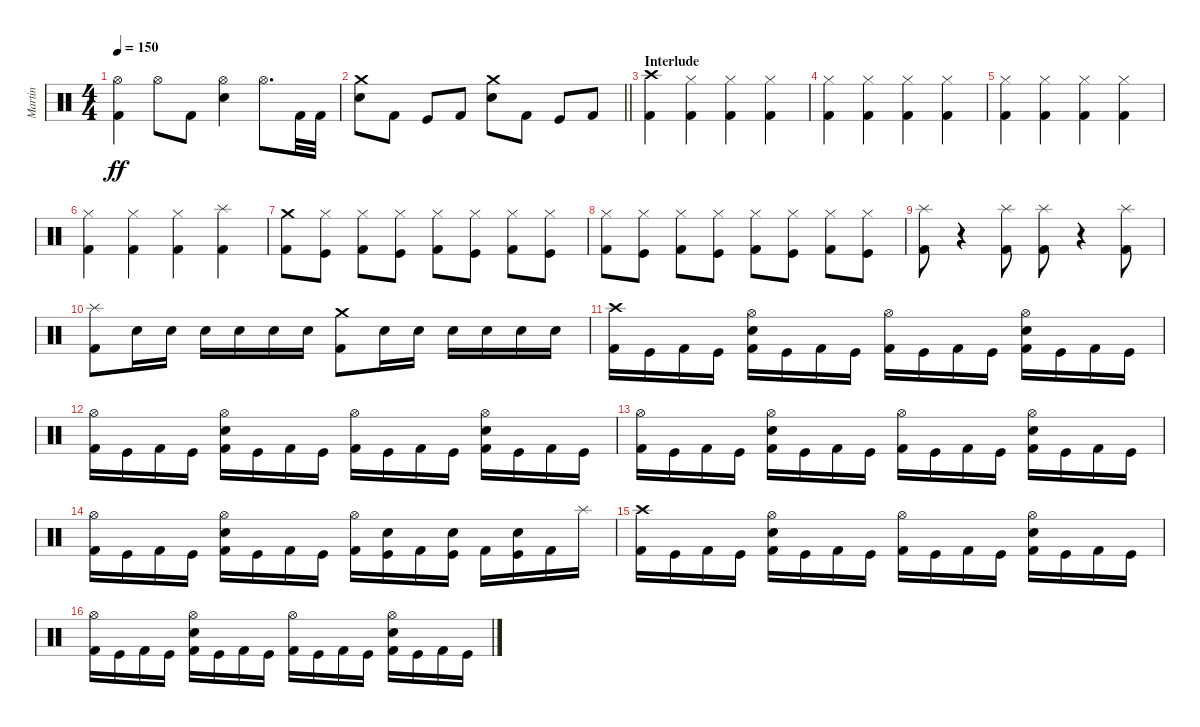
\track ("Martin" "Martin") {instrument percussion}
\staff {score}
\articulation defaults
\ts (4 4)
\tempo 150
\clef neutral
\ks c
("Hi-Hat (open)" "Kick (hit) 2").4{dy ff} "Hi-Hat (open)".8 "Kick (hit) 2".8 ("Hi-Hat (open)" "Electric Snare (hit)").4 "Hi-Hat (open)".8{d} "Kick (hit) 2".32 "Kick (hit) 2".32 |
\barLineRight lightlight
("Crash medium (hit)" "Electric Snare (hit)").8 "Kick (hit) 2".8 "Kick (hit)".8 "Kick (hit) 2".8 ("Crash medium (hit)" "Electric Snare (hit)").8 "Kick (hit) 2".8 "Kick (hit)".8 "Kick (hit) 2".8 |
\section ("" "Interlude")
("Crash high (hit)" "Kick (hit) 2").4 ("Hi-Hat (closed)" "Kick (hit) 2").4 ("Hi-Hat (closed)" "Kick (hit) 2").4 ("Hi-Hat (closed)" "Kick (hit) 2").4 |
("Hi-Hat (closed)" "Kick (hit) 2").4 ("Hi-Hat (closed)" "Kick (hit) 2").4 ("Hi-Hat (closed)" "Kick (hit) 2").4 ("Hi-Hat (closed)" "Kick (hit) 2").4 |
("Hi-Hat (closed)" "Kick (hit) 2").4 ("Hi-Hat (closed)" "Kick (hit) 2").4 ("Hi-Hat (closed)" "Kick (hit) 2").4 ("Hi-Hat (closed)" "Kick (hit) 2").4 |
("Hi-Hat (closed)" "Kick (hit) 2").4 ("Hi-Hat (closed)" "Kick (hit) 2").4 ("Hi-Hat (closed)" "Kick (hit) 2").4 ("Splash (hit)" "Kick (hit) 2").4 |
("Crash medium (hit)" "Kick (hit) 2").8 ("Hi-Hat (closed)" "Kick (hit)").8 ("Hi-Hat (closed)" "Kick (hit) 2").8 ("Hi-Hat (closed)" "Kick (hit)").8 ("Hi-Hat (closed)" "Kick (hit) 2").8 ("Hi-Hat (closed)" "Kick (hit)").8 ("Hi-Hat (closed)" "Kick (hit) 2").8 ("Hi-Hat (closed)" "Kick (hit)").8 |
("Hi-Hat (closed)" "Kick (hit) 2").8 ("Hi-Hat (closed)" "Kick (hit)").8 ("Hi-Hat (closed)" "Kick (hit) 2").8 ("Hi-Hat (closed)" "Kick (hit)").8 ("Hi-Hat (closed)" "Kick (hit) 2").8 ("Hi-Hat (closed)" "Kick (hit)").8 ("Hi-Hat (closed)" "Kick (hit) 2").8 ("Hi-Hat (closed)" "Kick (hit)").8 |
("Splash (hit)" "Kick (hit) 2").8 r.4 ("Splash (hit)" "Kick (hit) 2").8 ("Splash (hit)" "Kick (hit) 2").8 r.4 ("Splash (hit)" "Kick (hit) 2").8 |
("Splash (hit)" "Kick (hit) 2").8 "Electric Snare (hit)".16 "Electric Snare (hit)".16 "Electric Snare (hit)".16 "Electric Snare (hit)".16 "Electric Snare (hit)".16 "Electric Snare (hit)".16 ("Crash medium (hit)" "Kick (hit) 2").8 "Electric Snare (hit)".16 "Electric Snare (hit)".16 "Electric Snare (hit)".16 "Electric Snare (hit)".16 "Electric Snare (hit)".16 "Electric Snare (hit)".16 |
("Crash high (hit)" "Kick (hit) 2").16 "Kick (hit)".16 "Kick (hit) 2".16 "Kick (hit)".16 ("Hi-Hat (open)" "Electric Snare (hit)" "Kick (hit) 2").16 "Kick (hit)".16 "Kick (hit) 2".16 "Kick (hit)".16 ("Hi-Hat (open)" "Kick (hit) 2").16 "Kick (hit)".16 "Kick (hit) 2".16 "Kick (hit)".16 ("Hi-Hat (open)" "Electric Snare (hit)" "Kick (hit) 2").16 "Kick (hit)".16 "Kick (hit) 2".16 "Kick (hit)".16 |
("Hi-Hat (open)" "Kick (hit) 2").16 "Kick (hit)".16 "Kick (hit) 2".16 "Kick (hit)".16 ("Hi-Hat (open)" "Electric Snare (hit)" "Kick (hit) 2").16 "Kick (hit)".16 "Kick (hit) 2".16 "Kick (hit)".16 ("Hi-Hat (open)" "Kick (hit) 2").16 "Kick (hit)".16 "Kick (hit) 2".16 "Kick (hit)".16 ("Hi-Hat (open)" "Electric Snare (hit)" "Kick (hit) 2").16 "Kick (hit)".16 "Kick (hit) 2".16 "Kick (hit)".16 |
("Hi-Hat (open)" "Kick (hit) 2").16 "Kick (hit)".16 "Kick (hit) 2".16 "Kick (hit)".16 ("Hi-Hat (open)" "Electric Snare (hit)" "Kick (hit) 2").16 "Kick (hit)".16 "Kick (hit) 2".16 "Kick (hit)".16 ("Hi-Hat (open)" "Kick (hit) 2").16 "Kick (hit)".16 "Kick (hit) 2".16 "Kick (hit)".16 ("Hi-Hat (open)" "Electric Snare (hit)" "Kick (hit) 2").16 "Kick (hit)".16 "Kick (hit) 2".16 "Kick (hit)".16 |
("Hi-Hat (open)" "Kick (hit) 2").16 "Kick (hit)".16 "Kick (hit) 2".16 "Kick (hit)".16 ("Hi-Hat (open)" "Electric Snare (hit)" "Kick (hit) 2").16 "Kick (hit)".16 "Kick (hit) 2".16 "Kick (hit)".16 ("Hi-Hat (open)" "Kick (hit) 2").16 ("Electric Snare (hit)" "Kick (hit)").16 "Kick (hit) 2".16 ("Electric Snare (hit)" "Kick (hit)").16 "Kick (hit) 2".16 ("Electric Snare (hit)" "Kick (hit)").16 "Kick (hit) 2".16 "Splash (hit)".16 |
("Crash high (hit)" "Kick (hit) 2").16 "Kick (hit)".16 "Kick (hit) 2".16 "Kick (hit)".16 ("Hi-Hat (open)" "Electric Snare (hit)" "Kick (hit) 2").16 "Kick (hit)".16 "Kick (hit) 2".16 "Kick (hit)".16 ("Hi-Hat (open)" "Kick (hit) 2").16 "Kick (hit)".16 "Kick (hit) 2".16 "Kick (hit)".16 ("Hi-Hat (open)" "Electric Snare (hit)" "Kick (hit) 2").16 "Kick (hit)".16 "Kick (hit) 2".16 "Kick (hit)".16 |
("Hi-Hat (open)" "Kick (hit) 2").16 "Kick (hit)".16 "Kick (hit) 2".16 "Kick (hit)".16 ("Hi-Hat (open)" "Electric Snare (hit)" "Kick (hit) 2").16 "Kick (hit)".16 "Kick (hit) 2".16 "Kick (hit)".16 ("Hi-Hat (open)" "Kick (hit) 2").16 "Kick (hit)".16 "Kick (hit) 2".16 "Kick (hit)".16 ("Hi-Hat (open)" "Electric Snare (hit)" "Kick (hit) 2").16 "Kick (hit)".16 "Kick (hit) 2".16 "Kick (hit)".16
